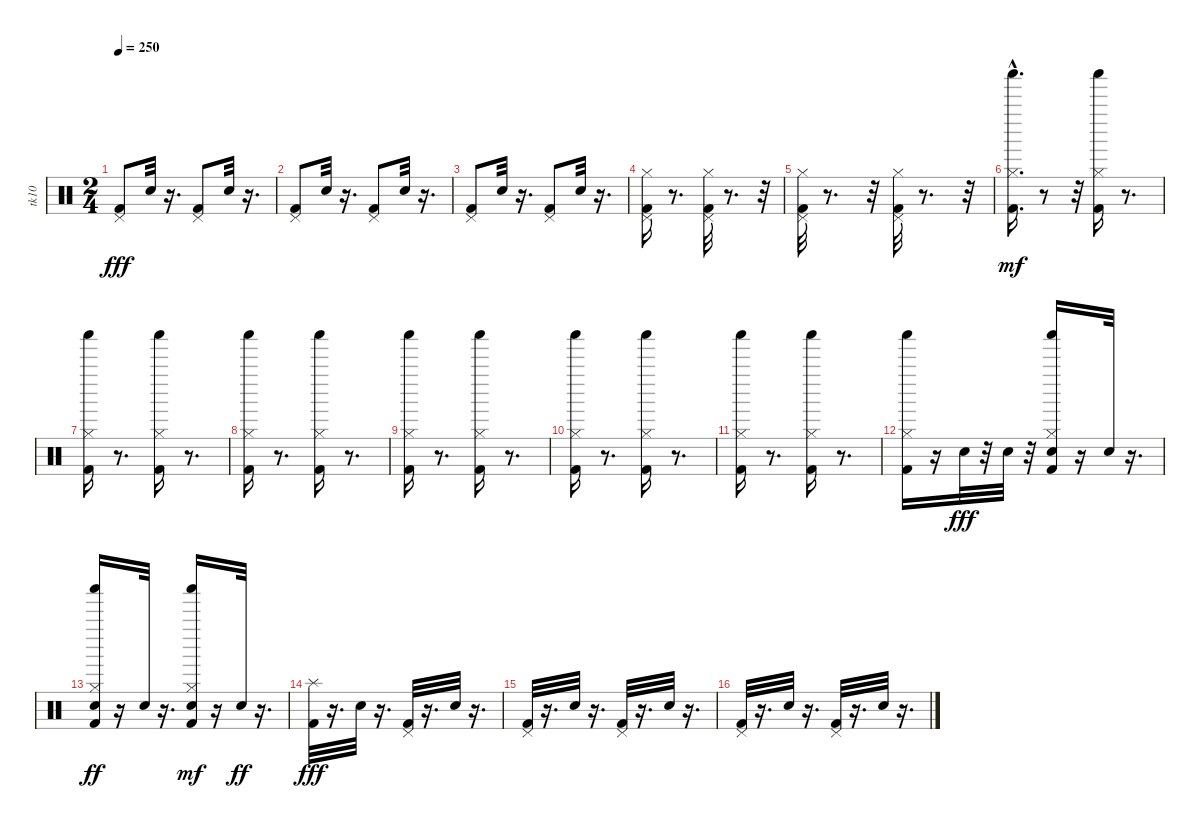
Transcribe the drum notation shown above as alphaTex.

\track ("tk10" "tk10") {instrument percussion}
\staff {score}
\articulation defaults
\ts (2 4)
\tempo 250
\clef neutral
\ks c
("Kick (hit) 2" "Pedal Hi-Hat (hit)").8{dy fff} "Snare (hit) 2".32 r.16{d} ("Kick (hit) 2" "Pedal Hi-Hat (hit)").8 "Snare (hit) 2".32 r.16{d} |
("Kick (hit) 2" "Pedal Hi-Hat (hit)").8 "Snare (hit) 2".32 r.16{d} ("Kick (hit) 2" "Pedal Hi-Hat (hit)").8 "Snare (hit) 2".32 r.16{d} |
("Kick (hit) 2" "Pedal Hi-Hat (hit)").8 "Snare (hit) 2".32 r.16{d} ("Kick (hit) 2" "Pedal Hi-Hat (hit)").8 "Snare (hit) 2".32 r.16{d} |
("Hi-Hat (closed)" "Kick (hit) 2" "Pedal Hi-Hat (hit)").16 r.8{d} ("Kick (hit) 2" "Hi-Hat (closed)" "Pedal Hi-Hat (hit)").32 r.8{d} r.32 |
("Hi-Hat (closed)" "Kick (hit) 2" "Pedal Hi-Hat (hit)").32 r.8{d} r.32 ("Hi-Hat (closed)" "Kick (hit) 2" "Pedal Hi-Hat (hit)").32 r.8{d} r.32 |
("Hi-Hat (closed)" "Kick (hit) 2"{hac} "Shaker (hit)").16{d dy mf} r.8 r.32 ("Kick (hit) 2" "Hi-Hat (closed)" "Shaker (hit)").16 r.8{d} |
("Hi-Hat (closed)" "Kick (hit) 2" "Shaker (hit)").16 r.8{d} ("Kick (hit) 2" "Hi-Hat (closed)" "Shaker (hit)").16 r.8{d} |
("Kick (hit) 2" "Hi-Hat (closed)" "Shaker (hit)").16 r.8{d} ("Hi-Hat (closed)" "Kick (hit) 2" "Shaker (hit)").16 r.8{d} |
("Kick (hit) 2" "Hi-Hat (closed)" "Shaker (hit)").16 r.8{d} ("Kick (hit) 2" "Hi-Hat (closed)" "Shaker (hit)").16 r.8{d} |
("Kick (hit) 2" "Hi-Hat (closed)" "Shaker (hit)").16 r.8{d} ("Hi-Hat (closed)" "Kick (hit) 2" "Shaker (hit)").16 r.8{d} |
("Hi-Hat (closed)" "Kick (hit) 2" "Shaker (hit)").16 r.8{d} ("Hi-Hat (closed)" "Kick (hit) 2" "Shaker (hit)").16 r.8{d} |
("Hi-Hat (closed)" "Kick (hit) 2" "Shaker (hit)").16 r.16 "Electric Snare (hit)".32{dy fff} r.32 "Electric Snare (hit)".32 r.32 ("Hi-Hat (closed)" "Kick (hit) 2" "Shaker (hit)" "Electric Snare (hit)").16 r.16 "Electric Snare (hit)".32 r.16{d} |
("Hi-Hat (closed)" "Kick (hit) 2" "Shaker (hit)" "Electric Snare (hit)").16{dy ff} r.16 "Electric Snare (hit)".32 r.16{d} ("Kick (hit) 2" "Hi-Hat (closed)" "Electric Snare (hit)" "Shaker (hit)").16{dy mf} r.16 "Electric Snare (hit)".32{dy ff} r.16{d} |
("Kick (hit) 2" "Splash (hit)").32{dy fff} r.16{d} "Snare (hit) 2".32 r.16{d} ("Kick (hit) 2" "Pedal Hi-Hat (hit)").32 r.16{d} "Snare (hit) 2".32 r.16{d} |
("Kick (hit) 2" "Pedal Hi-Hat (hit)").32 r.16{d} "Snare (hit) 2".32 r.16{d} ("Kick (hit) 2" "Pedal Hi-Hat (hit)").32 r.16{d} "Snare (hit) 2".32 r.16{d} |
("Kick (hit) 2" "Pedal Hi-Hat (hit)").32 r.16{d} "Snare (hit) 2".32 r.16{d} ("Kick (hit) 2" "Pedal Hi-Hat (hit)").32 r.16{d} "Snare (hit) 2".32 r.16{d}
